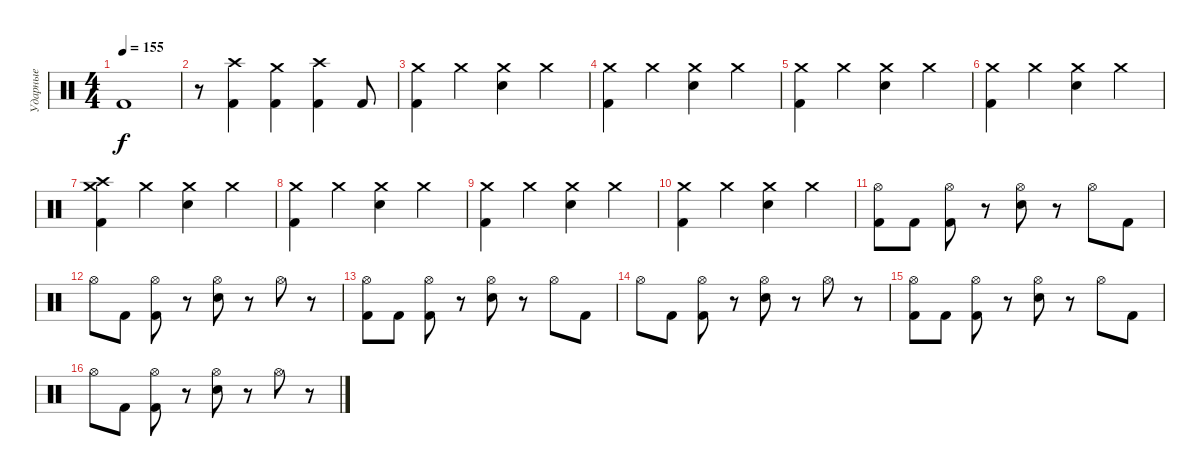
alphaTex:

\track ("Ударные" "Ударные") {instrument percussion}
\staff {score}
\articulation defaults
\ts (4 4)
\tempo 155
\clef neutral
\ks c "Kick (hit) 2".1{dy f}
|
r.8 ("Crash high (hit)" "Kick (hit) 2").4 ("Crash medium (hit)" "Kick (hit) 2").4 ("Crash high (hit)" "Kick (hit) 2").4 "Kick (hit) 2".8 |
("Crash medium (hit)" "Kick (hit) 2").4 "Crash medium (hit)".4 ("Crash medium (hit)" "Electric Snare (hit)").4 "Crash medium (hit)".4 |
("Crash medium (hit)" "Kick (hit) 2").4 "Crash medium (hit)".4 ("Crash medium (hit)" "Electric Snare (hit)").4 "Crash medium (hit)".4 |
("Crash medium (hit)" "Kick (hit) 2").4 "Crash medium (hit)".4 ("Crash medium (hit)" "Electric Snare (hit)").4 "Crash medium (hit)".4 |
("Crash medium (hit)" "Kick (hit) 2").4 "Crash medium (hit)".4 ("Crash medium (hit)" "Electric Snare (hit)").4 "Crash medium (hit)".4 |
("Crash high (hit)" "Crash medium (hit)" "Kick (hit) 2").4 "Crash medium (hit)".4 ("Crash medium (hit)" "Electric Snare (hit)").4 "Crash medium (hit)".4 |
("Crash medium (hit)" "Kick (hit) 2").4 "Crash medium (hit)".4 ("Crash medium (hit)" "Electric Snare (hit)").4 "Crash medium (hit)".4 |
("Crash medium (hit)" "Kick (hit) 2").4 "Crash medium (hit)".4 ("Crash medium (hit)" "Electric Snare (hit)").4 "Crash medium (hit)".4 |
("Crash medium (hit)" "Kick (hit) 2").4 "Crash medium (hit)".4 ("Crash medium (hit)" "Electric Snare (hit)").4 "Crash medium (hit)".4 |
("Hi-Hat (open)" "Kick (hit) 2").8 "Kick (hit) 2".8 ("Hi-Hat (open)" "Kick (hit) 2").8 r.8 ("Hi-Hat (open)" "Electric Snare (hit)").8 r.8 "Hi-Hat (open)".8 "Kick (hit) 2".8 |
"Hi-Hat (open)".8 "Kick (hit) 2".8 ("Hi-Hat (open)" "Kick (hit) 2").8 r.8 ("Hi-Hat (open)" "Electric Snare (hit)").8 r.8 "Hi-Hat (open)".8 r.8 |
("Hi-Hat (open)" "Kick (hit) 2").8 "Kick (hit) 2".8 ("Hi-Hat (open)" "Kick (hit) 2").8 r.8 ("Hi-Hat (open)" "Electric Snare (hit)").8 r.8 "Hi-Hat (open)".8 "Kick (hit) 2".8 |
"Hi-Hat (open)".8 "Kick (hit) 2".8 ("Hi-Hat (open)" "Kick (hit) 2").8 r.8 ("Hi-Hat (open)" "Electric Snare (hit)").8 r.8 "Hi-Hat (open)".8 r.8 |
("Hi-Hat (open)" "Kick (hit) 2").8 "Kick (hit) 2".8 ("Hi-Hat (open)" "Kick (hit) 2").8 r.8 ("Hi-Hat (open)" "Electric Snare (hit)").8 r.8 "Hi-Hat (open)".8 "Kick (hit) 2".8 |
"Hi-Hat (open)".8 "Kick (hit) 2".8 ("Hi-Hat (open)" "Kick (hit) 2").8 r.8 ("Hi-Hat (open)" "Electric Snare (hit)").8 r.8 "Hi-Hat (open)".8 r.8
